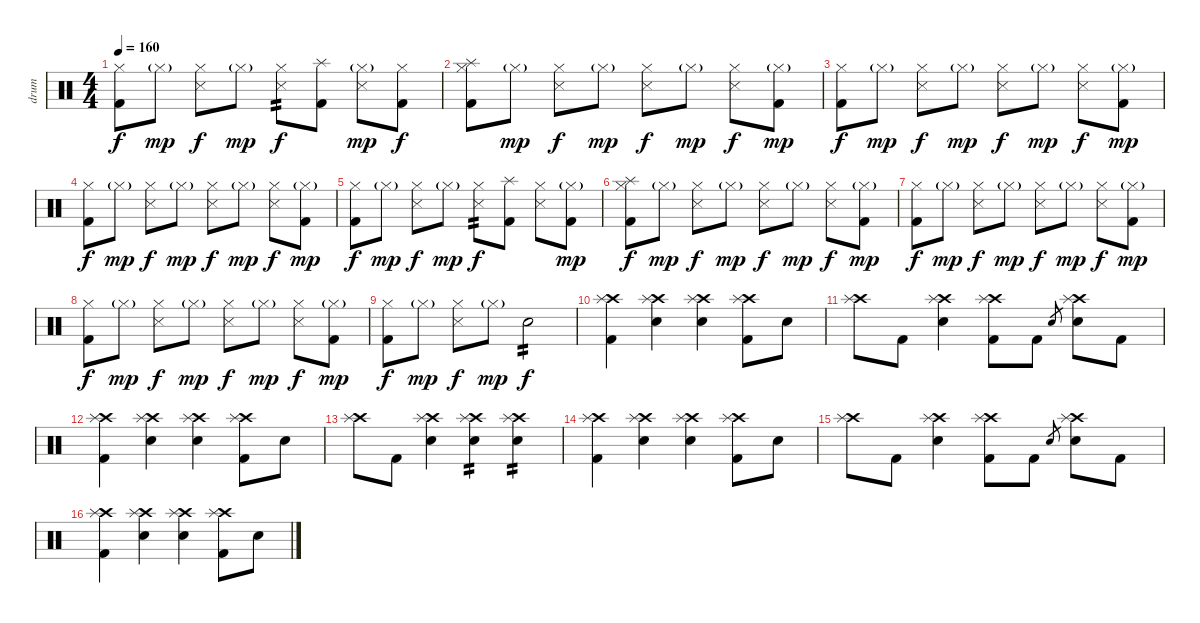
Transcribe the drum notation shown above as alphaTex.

\track ("drum" "drum") {instrument percussion}
\staff {score}
\articulation defaults
\ts (4 4)
\tempo 160
\clef neutral
\ks c
("Hi-Hat (closed)" "Kick (hit) 2").8{dy f} "Hi-Hat (closed)"{g}.8{dy mp} ("Hi-Hat (closed)" "Snare (side stick) 3").8{dy f} "Hi-Hat (closed)"{g}.8{dy mp} ("Hi-Hat (closed)" "Snare (side stick) 3").8{tp 2 dy f} ("Splash (hit)" "Kick (hit) 2").8 ("Hi-Hat (closed)"{g} "Snare (side stick) 3").8{dy mp} ("Hi-Hat (closed)" "Kick (hit) 2").8{dy f} |
("Splash (hit)" "Hi-Hat (closed)" "Kick (hit) 2").8 "Hi-Hat (closed)"{g}.8{dy mp} ("Hi-Hat (closed)" "Snare (side stick) 3").8{dy f} "Hi-Hat (closed)"{g}.8{dy mp} ("Hi-Hat (closed)" "Snare (side stick) 3").8{dy f} "Hi-Hat (closed)"{g}.8{dy mp} ("Hi-Hat (closed)" "Snare (side stick) 3").8{dy f} ("Hi-Hat (closed)"{g} "Kick (hit) 2").8{dy mp} |
("Hi-Hat (closed)" "Kick (hit) 2").8{dy f} "Hi-Hat (closed)"{g}.8{dy mp} ("Hi-Hat (closed)" "Snare (side stick) 3").8{dy f} "Hi-Hat (closed)"{g}.8{dy mp} ("Hi-Hat (closed)" "Snare (side stick) 3").8{dy f} "Hi-Hat (closed)"{g}.8{dy mp} ("Hi-Hat (closed)" "Snare (side stick) 3").8{dy f} ("Hi-Hat (closed)"{g} "Kick (hit) 2").8{dy mp} |
("Hi-Hat (closed)" "Kick (hit) 2").8{dy f} "Hi-Hat (closed)"{g}.8{dy mp} ("Hi-Hat (closed)" "Snare (side stick) 3").8{dy f} "Hi-Hat (closed)"{g}.8{dy mp} ("Hi-Hat (closed)" "Snare (side stick) 3").8{dy f} "Hi-Hat (closed)"{g}.8{dy mp} ("Hi-Hat (closed)" "Snare (side stick) 3").8{dy f} ("Hi-Hat (closed)"{g} "Kick (hit) 2").8{dy mp} |
("Hi-Hat (closed)" "Kick (hit) 2").8{dy f} "Hi-Hat (closed)"{g}.8{dy mp} ("Hi-Hat (closed)" "Snare (side stick) 3").8{dy f} "Hi-Hat (closed)"{g}.8{dy mp} ("Hi-Hat (closed)" "Snare (side stick) 3").8{tp 2 dy f} ("Splash (hit)" "Kick (hit) 2").8 ("Hi-Hat (closed)" "Snare (side stick) 3").8 ("Hi-Hat (closed)"{g} "Kick (hit) 2").8{dy mp} |
("Splash (hit)" "Hi-Hat (closed)" "Kick (hit) 2").8{dy f} "Hi-Hat (closed)"{g}.8{dy mp} ("Hi-Hat (closed)" "Snare (side stick) 3").8{dy f} "Hi-Hat (closed)"{g}.8{dy mp} ("Hi-Hat (closed)" "Snare (side stick) 3").8{dy f} "Hi-Hat (closed)"{g}.8{dy mp} ("Hi-Hat (closed)" "Snare (side stick) 3").8{dy f} ("Hi-Hat (closed)"{g} "Kick (hit) 2").8{dy mp} |
("Hi-Hat (closed)" "Kick (hit) 2").8{dy f} "Hi-Hat (closed)"{g}.8{dy mp} ("Hi-Hat (closed)" "Snare (side stick) 3").8{dy f} "Hi-Hat (closed)"{g}.8{dy mp} ("Hi-Hat (closed)" "Snare (side stick) 3").8{dy f} "Hi-Hat (closed)"{g}.8{dy mp} ("Hi-Hat (closed)" "Snare (side stick) 3").8{dy f} ("Hi-Hat (closed)"{g} "Kick (hit) 2").8{dy mp} |
("Hi-Hat (closed)" "Kick (hit) 2").8{dy f} "Hi-Hat (closed)"{g}.8{dy mp} ("Hi-Hat (closed)" "Snare (side stick) 3").8{dy f} "Hi-Hat (closed)"{g}.8{dy mp} ("Hi-Hat (closed)" "Snare (side stick) 3").8{dy f} "Hi-Hat (closed)"{g}.8{dy mp} ("Hi-Hat (closed)" "Snare (side stick) 3").8{dy f} ("Hi-Hat (closed)"{g} "Kick (hit) 2").8{dy mp} |
("Hi-Hat (closed)" "Kick (hit) 2").8{dy f} "Hi-Hat (closed)"{g}.8{dy mp} ("Hi-Hat (closed)" "Snare (side stick) 3").8{dy f} "Hi-Hat (closed)"{g}.8{dy mp} "Electric Snare (hit)".2{tp 2 dy f} |
("Crash high (hit)" "Splash (hit)" "Kick (hit) 2").4 ("Crash high (hit)" "Splash (hit)" "Electric Snare (hit)").4 ("Crash high (hit)" "Splash (hit)" "Electric Snare (hit)").4 ("Crash high (hit)" "Splash (hit)" "Kick (hit) 2").8 "Electric Snare (hit)".8 |
("Crash high (hit)" "Splash (hit)").8 "Kick (hit) 2".8 ("Crash high (hit)" "Splash (hit)" "Electric Snare (hit)").4 ("Crash high (hit)" "Splash (hit)" "Kick (hit) 2").8 "Kick (hit) 2".8 "Electric Snare (hit)".8{gr} ("Crash high (hit)" "Splash (hit)" "Electric Snare (hit)").8 "Kick (hit) 2".8 |
("Crash high (hit)" "Splash (hit)" "Kick (hit) 2").4 ("Crash high (hit)" "Splash (hit)" "Electric Snare (hit)").4 ("Crash high (hit)" "Splash (hit)" "Electric Snare (hit)").4 ("Crash high (hit)" "Splash (hit)" "Kick (hit) 2").8 "Electric Snare (hit)".8 |
("Crash high (hit)" "Splash (hit)").8 "Kick (hit) 2".8 ("Crash high (hit)" "Splash (hit)" "Electric Snare (hit)").4 ("Crash high (hit)" "Splash (hit)" "Electric Snare (hit)").4{tp 2} ("Crash high (hit)" "Splash (hit)" "Electric Snare (hit)").4{tp 2} |
("Crash high (hit)" "Splash (hit)" "Kick (hit) 2").4 ("Crash high (hit)" "Splash (hit)" "Electric Snare (hit)").4 ("Crash high (hit)" "Splash (hit)" "Electric Snare (hit)").4 ("Crash high (hit)" "Splash (hit)" "Kick (hit) 2").8 "Electric Snare (hit)".8 |
("Crash high (hit)" "Splash (hit)").8 "Kick (hit) 2".8 ("Crash high (hit)" "Splash (hit)" "Electric Snare (hit)").4 ("Crash high (hit)" "Splash (hit)" "Kick (hit) 2").8 "Kick (hit) 2".8 "Electric Snare (hit)".8{gr} ("Crash high (hit)" "Splash (hit)" "Electric Snare (hit)").8 "Kick (hit) 2".8 |
("Crash high (hit)" "Splash (hit)" "Kick (hit) 2").4 ("Crash high (hit)" "Splash (hit)" "Electric Snare (hit)").4 ("Crash high (hit)" "Splash (hit)" "Electric Snare (hit)").4 ("Crash high (hit)" "Splash (hit)" "Kick (hit) 2").8 "Electric Snare (hit)".8
